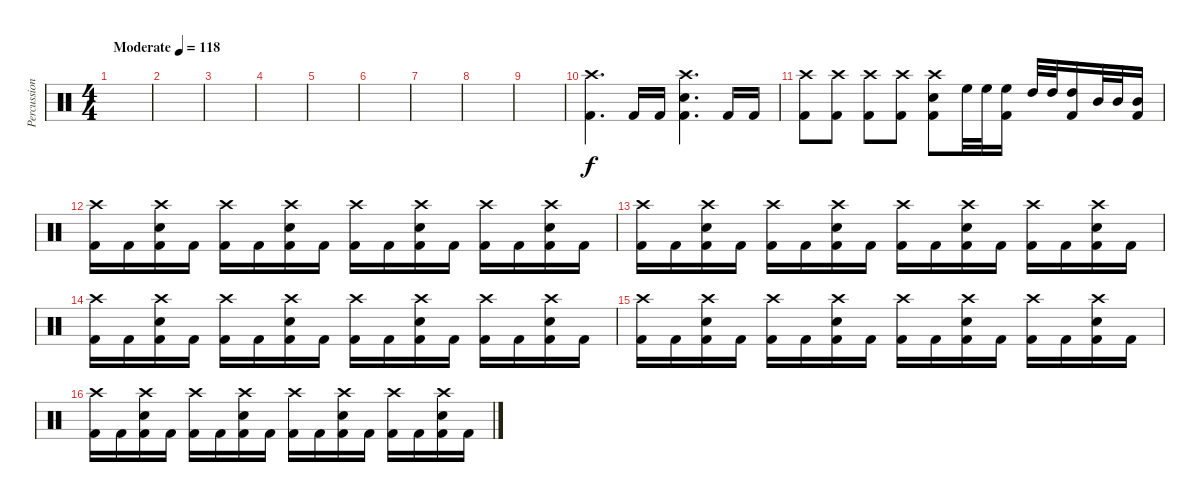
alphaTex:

\track ("Percussions" "Percussion") {instrument percussion}
\staff {score}
\articulation defaults
\ts (4 4)
\tempo (118 "Moderate")
\clef neutral
\ks c
|
|
|
|
|
|
|
|
|
("Crash high (hit)" "Kick (hit) 2").4{d} "Kick (hit) 2".16 "Kick (hit) 2".16 ("Crash high (hit)" "Snare (hit) 2" "Kick (hit) 2").4{d} "Kick (hit) 2".16 "Kick (hit) 2".16 |
("Crash high (hit)" "Kick (hit) 2").8 ("Crash high (hit)" "Kick (hit) 2").8 ("Crash high (hit)" "Kick (hit) 2").8 ("Crash high (hit)" "Kick (hit) 2").8 ("Crash high (hit)" "Snare (hit) 2" "Kick (hit) 2").8 "High Floor Tom (hit)".32 "High Floor Tom (hit)".32 ("High Floor Tom (hit)" "Kick (hit) 2").16 "High Tom (hit)".32 "High Tom (hit)".32 ("High Tom (hit)" "Kick (hit) 2").16 "Mid Tom (hit)".32 "Mid Tom (hit)".32 ("Mid Tom (hit)" "Kick (hit) 2").16 |
("Crash high (hit)" "Kick (hit) 2").16 "Kick (hit) 2".16 ("Crash high (hit)" "Snare (hit) 2" "Kick (hit) 2").16 "Kick (hit) 2".16 ("Crash high (hit)" "Kick (hit) 2").16 "Kick (hit) 2".16 ("Crash high (hit)" "Snare (hit) 2" "Kick (hit) 2").16 "Kick (hit) 2".16 ("Crash high (hit)" "Kick (hit) 2").16 "Kick (hit) 2".16 ("Crash high (hit)" "Snare (hit) 2" "Kick (hit) 2").16 "Kick (hit) 2".16 ("Crash high (hit)" "Kick (hit) 2").16 "Kick (hit) 2".16 ("Crash high (hit)" "Snare (hit) 2" "Kick (hit) 2").16 "Kick (hit) 2".16 |
("Crash high (hit)" "Kick (hit) 2").16 "Kick (hit) 2".16 ("Crash high (hit)" "Snare (hit) 2" "Kick (hit) 2").16 "Kick (hit) 2".16 ("Crash high (hit)" "Kick (hit) 2").16 "Kick (hit) 2".16 ("Crash high (hit)" "Snare (hit) 2" "Kick (hit) 2").16 "Kick (hit) 2".16 ("Crash high (hit)" "Kick (hit) 2").16 "Kick (hit) 2".16 ("Crash high (hit)" "Snare (hit) 2" "Kick (hit) 2").16 "Kick (hit) 2".16 ("Crash high (hit)" "Kick (hit) 2").16 "Kick (hit) 2".16 ("Crash high (hit)" "Snare (hit) 2" "Kick (hit) 2").16 "Kick (hit) 2".16 |
("Crash high (hit)" "Kick (hit) 2").16 "Kick (hit) 2".16 ("Crash high (hit)" "Snare (hit) 2" "Kick (hit) 2").16 "Kick (hit) 2".16 ("Crash high (hit)" "Kick (hit) 2").16 "Kick (hit) 2".16 ("Crash high (hit)" "Snare (hit) 2" "Kick (hit) 2").16 "Kick (hit) 2".16 ("Crash high (hit)" "Kick (hit) 2").16 "Kick (hit) 2".16 ("Crash high (hit)" "Snare (hit) 2" "Kick (hit) 2").16 "Kick (hit) 2".16 ("Crash high (hit)" "Kick (hit) 2").16 "Kick (hit) 2".16 ("Crash high (hit)" "Snare (hit) 2" "Kick (hit) 2").16 "Kick (hit) 2".16 |
("Crash high (hit)" "Kick (hit) 2").16 "Kick (hit) 2".16 ("Crash high (hit)" "Snare (hit) 2" "Kick (hit) 2").16 "Kick (hit) 2".16 ("Crash high (hit)" "Kick (hit) 2").16 "Kick (hit) 2".16 ("Crash high (hit)" "Snare (hit) 2" "Kick (hit) 2").16 "Kick (hit) 2".16 ("Crash high (hit)" "Kick (hit) 2").16 "Kick (hit) 2".16 ("Crash high (hit)" "Snare (hit) 2" "Kick (hit) 2").16 "Kick (hit) 2".16 ("Crash high (hit)" "Kick (hit) 2").16 "Kick (hit) 2".16 ("Crash high (hit)" "Snare (hit) 2" "Kick (hit) 2").16 "Kick (hit) 2".16 |
("Crash high (hit)" "Kick (hit) 2").16 "Kick (hit) 2".16 ("Crash high (hit)" "Snare (hit) 2" "Kick (hit) 2").16 "Kick (hit) 2".16 ("Crash high (hit)" "Kick (hit) 2").16 "Kick (hit) 2".16 ("Crash high (hit)" "Snare (hit) 2" "Kick (hit) 2").16 "Kick (hit) 2".16 ("Crash high (hit)" "Kick (hit) 2").16 "Kick (hit) 2".16 ("Crash high (hit)" "Snare (hit) 2" "Kick (hit) 2").16 "Kick (hit) 2".16 ("Crash high (hit)" "Kick (hit) 2").16 "Kick (hit) 2".16 ("Crash high (hit)" "Snare (hit) 2" "Kick (hit) 2").16 "Kick (hit) 2".16
